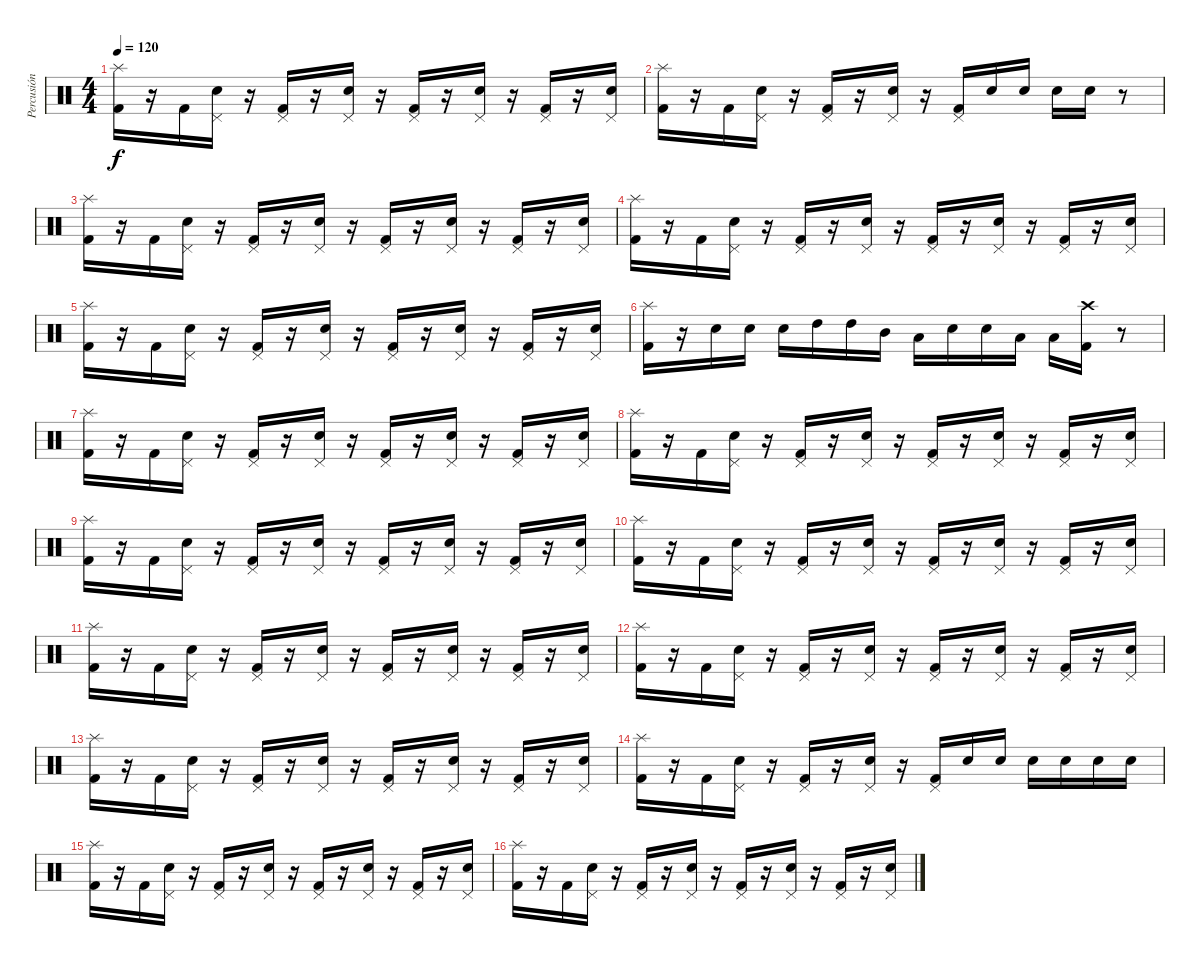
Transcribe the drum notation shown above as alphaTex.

\track ("Percusión" "Percusión") {instrument percussion}
\staff {score}
\articulation defaults
\ts (4 4)
\tempo 120
\clef neutral
\ks c
("Splash (hit)" "Kick (hit) 2").16{dy f} r.16 "Kick (hit) 2".16 ("Pedal Hi-Hat (hit)" "Snare (hit) 2").16 r.16 ("Pedal Hi-Hat (hit)" "Kick (hit) 2").16 r.16 ("Pedal Hi-Hat (hit)" "Snare (hit) 2").16 r.16 ("Pedal Hi-Hat (hit)" "Kick (hit) 2").16 r.16 ("Pedal Hi-Hat (hit)" "Snare (hit) 2").16 r.16 ("Pedal Hi-Hat (hit)" "Kick (hit) 2").16 r.16 ("Pedal Hi-Hat (hit)" "Snare (hit) 2").16 |
("Splash (hit)" "Kick (hit) 2").16 r.16 "Kick (hit) 2".16 ("Pedal Hi-Hat (hit)" "Snare (hit) 2").16 r.16 ("Pedal Hi-Hat (hit)" "Kick (hit) 2").16 r.16 ("Pedal Hi-Hat (hit)" "Snare (hit) 2").16 r.16 ("Pedal Hi-Hat (hit)" "Kick (hit) 2").16 "Snare (hit) 2".16 "Snare (hit) 2".16 "Snare (hit) 2".16 "Snare (hit) 2".16 r.8 |
("Splash (hit)" "Kick (hit) 2").16 r.16 "Kick (hit) 2".16 ("Pedal Hi-Hat (hit)" "Snare (hit) 2").16 r.16 ("Pedal Hi-Hat (hit)" "Kick (hit) 2").16 r.16 ("Pedal Hi-Hat (hit)" "Snare (hit) 2").16 r.16 ("Pedal Hi-Hat (hit)" "Kick (hit) 2").16 r.16 ("Pedal Hi-Hat (hit)" "Snare (hit) 2").16 r.16 ("Pedal Hi-Hat (hit)" "Kick (hit) 2").16 r.16 ("Pedal Hi-Hat (hit)" "Snare (hit) 2").16 |
("Splash (hit)" "Kick (hit) 2").16 r.16 "Kick (hit) 2".16 ("Pedal Hi-Hat (hit)" "Snare (hit) 2").16 r.16 ("Pedal Hi-Hat (hit)" "Kick (hit) 2").16 r.16 ("Pedal Hi-Hat (hit)" "Snare (hit) 2").16 r.16 ("Pedal Hi-Hat (hit)" "Kick (hit) 2").16 r.16 ("Pedal Hi-Hat (hit)" "Snare (hit) 2").16 r.16 ("Pedal Hi-Hat (hit)" "Kick (hit) 2").16 r.16 ("Pedal Hi-Hat (hit)" "Snare (hit) 2").16 |
("Splash (hit)" "Kick (hit) 2").16 r.16 "Kick (hit) 2".16 ("Pedal Hi-Hat (hit)" "Snare (hit) 2").16 r.16 ("Pedal Hi-Hat (hit)" "Kick (hit) 2").16 r.16 ("Pedal Hi-Hat (hit)" "Snare (hit) 2").16 r.16 ("Pedal Hi-Hat (hit)" "Kick (hit) 2").16 r.16 ("Pedal Hi-Hat (hit)" "Snare (hit) 2").16 r.16 ("Pedal Hi-Hat (hit)" "Kick (hit) 2").16 r.16 ("Pedal Hi-Hat (hit)" "Snare (hit) 2").16 |
("Splash (hit)" "Kick (hit) 2").16 r.16 "Snare (hit) 2".16 "Snare (hit) 2".16 "Snare (hit) 2".16 "High Tom (hit)".16 "High Tom (hit)".16 "Mid Tom (hit)".16 "Low Tom (hit)".16 "Snare (hit) 2".16 "Snare (hit) 2".16 "Low Tom (hit)".16 "Low Tom (hit)".16 ("Crash high (hit)" "Kick (hit) 2").16 r.8 |
("Splash (hit)" "Kick (hit) 2").16 r.16 "Kick (hit) 2".16 ("Pedal Hi-Hat (hit)" "Snare (hit) 2").16 r.16 ("Pedal Hi-Hat (hit)" "Kick (hit) 2").16 r.16 ("Pedal Hi-Hat (hit)" "Snare (hit) 2").16 r.16 ("Pedal Hi-Hat (hit)" "Kick (hit) 2").16 r.16 ("Pedal Hi-Hat (hit)" "Snare (hit) 2").16 r.16 ("Pedal Hi-Hat (hit)" "Kick (hit) 2").16 r.16 ("Pedal Hi-Hat (hit)" "Snare (hit) 2").16 |
("Splash (hit)" "Kick (hit) 2").16 r.16 "Kick (hit) 2".16 ("Pedal Hi-Hat (hit)" "Snare (hit) 2").16 r.16 ("Pedal Hi-Hat (hit)" "Kick (hit) 2").16 r.16 ("Pedal Hi-Hat (hit)" "Snare (hit) 2").16 r.16 ("Pedal Hi-Hat (hit)" "Kick (hit) 2").16 r.16 ("Pedal Hi-Hat (hit)" "Snare (hit) 2").16 r.16 ("Pedal Hi-Hat (hit)" "Kick (hit) 2").16 r.16 ("Pedal Hi-Hat (hit)" "Snare (hit) 2").16 |
("Splash (hit)" "Kick (hit) 2").16 r.16 "Kick (hit) 2".16 ("Pedal Hi-Hat (hit)" "Snare (hit) 2").16 r.16 ("Pedal Hi-Hat (hit)" "Kick (hit) 2").16 r.16 ("Pedal Hi-Hat (hit)" "Snare (hit) 2").16 r.16 ("Pedal Hi-Hat (hit)" "Kick (hit) 2").16 r.16 ("Pedal Hi-Hat (hit)" "Snare (hit) 2").16 r.16 ("Pedal Hi-Hat (hit)" "Kick (hit) 2").16 r.16 ("Pedal Hi-Hat (hit)" "Snare (hit) 2").16 |
("Splash (hit)" "Kick (hit) 2").16 r.16 "Kick (hit) 2".16 ("Pedal Hi-Hat (hit)" "Snare (hit) 2").16 r.16 ("Pedal Hi-Hat (hit)" "Kick (hit) 2").16 r.16 ("Pedal Hi-Hat (hit)" "Snare (hit) 2").16 r.16 ("Pedal Hi-Hat (hit)" "Kick (hit) 2").16 r.16 ("Pedal Hi-Hat (hit)" "Snare (hit) 2").16 r.16 ("Pedal Hi-Hat (hit)" "Kick (hit) 2").16 r.16 ("Pedal Hi-Hat (hit)" "Snare (hit) 2").16 |
("Splash (hit)" "Kick (hit) 2").16 r.16 "Kick (hit) 2".16 ("Pedal Hi-Hat (hit)" "Snare (hit) 2").16 r.16 ("Pedal Hi-Hat (hit)" "Kick (hit) 2").16 r.16 ("Pedal Hi-Hat (hit)" "Snare (hit) 2").16 r.16 ("Pedal Hi-Hat (hit)" "Kick (hit) 2").16 r.16 ("Pedal Hi-Hat (hit)" "Snare (hit) 2").16 r.16 ("Pedal Hi-Hat (hit)" "Kick (hit) 2").16 r.16 ("Pedal Hi-Hat (hit)" "Snare (hit) 2").16 |
("Splash (hit)" "Kick (hit) 2").16 r.16 "Kick (hit) 2".16 ("Pedal Hi-Hat (hit)" "Snare (hit) 2").16 r.16 ("Pedal Hi-Hat (hit)" "Kick (hit) 2").16 r.16 ("Pedal Hi-Hat (hit)" "Snare (hit) 2").16 r.16 ("Pedal Hi-Hat (hit)" "Kick (hit) 2").16 r.16 ("Pedal Hi-Hat (hit)" "Snare (hit) 2").16 r.16 ("Pedal Hi-Hat (hit)" "Kick (hit) 2").16 r.16 ("Pedal Hi-Hat (hit)" "Snare (hit) 2").16 |
("Splash (hit)" "Kick (hit) 2").16 r.16 "Kick (hit) 2".16 ("Pedal Hi-Hat (hit)" "Snare (hit) 2").16 r.16 ("Pedal Hi-Hat (hit)" "Kick (hit) 2").16 r.16 ("Pedal Hi-Hat (hit)" "Snare (hit) 2").16 r.16 ("Pedal Hi-Hat (hit)" "Kick (hit) 2").16 r.16 ("Pedal Hi-Hat (hit)" "Snare (hit) 2").16 r.16 ("Pedal Hi-Hat (hit)" "Kick (hit) 2").16 r.16 ("Pedal Hi-Hat (hit)" "Snare (hit) 2").16 |
("Splash (hit)" "Kick (hit) 2").16 r.16 "Kick (hit) 2".16 ("Pedal Hi-Hat (hit)" "Snare (hit) 2").16 r.16 ("Pedal Hi-Hat (hit)" "Kick (hit) 2").16 r.16 ("Pedal Hi-Hat (hit)" "Snare (hit) 2").16 r.16 ("Pedal Hi-Hat (hit)" "Kick (hit) 2").16 "Snare (hit) 2".16 "Snare (hit) 2".16 "Snare (hit) 2".16 "Snare (hit) 2".16 "Snare (hit) 2".16 "Snare (hit) 2".16 |
("Splash (hit)" "Kick (hit) 2").16 r.16 "Kick (hit) 2".16 ("Pedal Hi-Hat (hit)" "Snare (hit) 2").16 r.16 ("Pedal Hi-Hat (hit)" "Kick (hit) 2").16 r.16 ("Pedal Hi-Hat (hit)" "Snare (hit) 2").16 r.16 ("Pedal Hi-Hat (hit)" "Kick (hit) 2").16 r.16 ("Pedal Hi-Hat (hit)" "Snare (hit) 2").16 r.16 ("Pedal Hi-Hat (hit)" "Kick (hit) 2").16 r.16 ("Pedal Hi-Hat (hit)" "Snare (hit) 2").16 |
("Splash (hit)" "Kick (hit) 2").16 r.16 "Kick (hit) 2".16 ("Pedal Hi-Hat (hit)" "Snare (hit) 2").16 r.16 ("Pedal Hi-Hat (hit)" "Kick (hit) 2").16 r.16 ("Pedal Hi-Hat (hit)" "Snare (hit) 2").16 r.16 ("Pedal Hi-Hat (hit)" "Kick (hit) 2").16 r.16 ("Pedal Hi-Hat (hit)" "Snare (hit) 2").16 r.16 ("Pedal Hi-Hat (hit)" "Kick (hit) 2").16 r.16 ("Pedal Hi-Hat (hit)" "Snare (hit) 2").16
